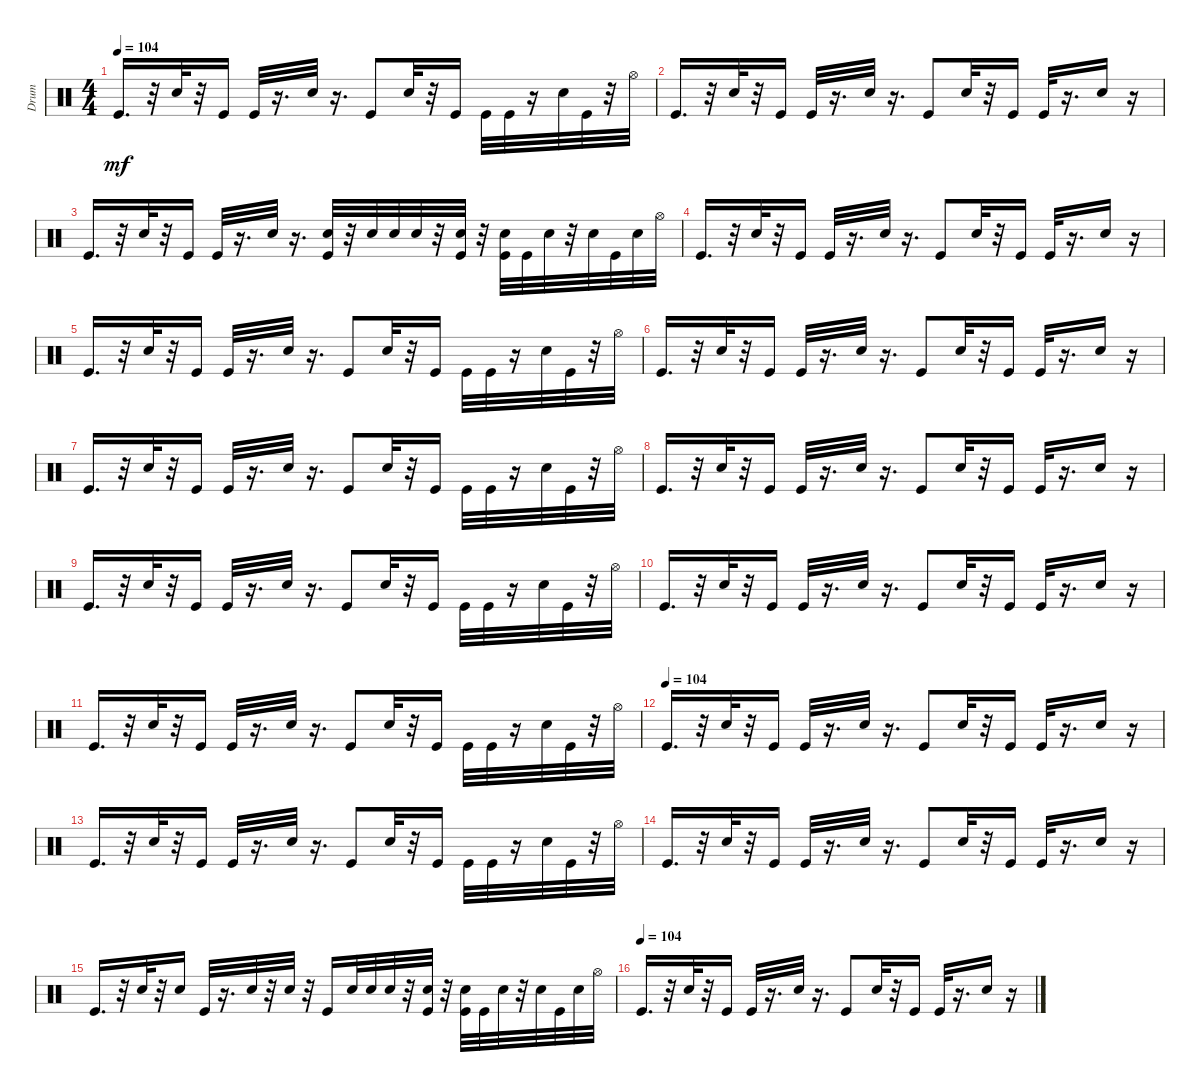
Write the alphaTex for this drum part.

\track ("Drum" "Drum") {instrument percussion}
\staff {score}
\articulation defaults
\ts (4 4)
\tempo 104
\clef neutral
\ks c "Kick (hit)".16{d dy mf}
r.32 "Snare (hit) 2".32 r.32 "Kick (hit)".16 "Kick (hit)".32 r.16{d} "Snare (hit) 2".32 r.16{d} "Kick (hit)".8 "Snare (hit) 2".32 r.32 "Kick (hit)".16 "Kick (hit)".32 "Kick (hit)".32 r.16 "Snare (hit) 2".32 "Kick (hit)".32 r.32 "Hi-Hat (open)".32 |
"Kick (hit)".16{d} r.32 "Snare (hit) 2".32 r.32 "Kick (hit)".16 "Kick (hit)".32 r.16{d} "Snare (hit) 2".32 r.16{d} "Kick (hit)".8 "Snare (hit) 2".32 r.32 "Kick (hit)".16 "Kick (hit)".32 r.16{d} "Snare (hit) 2".16 r.16 |
"Kick (hit)".16{d} r.32 "Snare (hit) 2".32 r.32 "Kick (hit)".16 "Kick (hit)".32 r.16{d} "Snare (hit) 2".32 r.16{d} ("Snare (hit) 2" "Kick (hit)").32 r.32 "Snare (hit) 2".32 "Snare (hit) 2".32 "Snare (hit) 2".32 r.32 ("Snare (hit) 2" "Kick (hit)").32 r.32 ("Snare (hit) 2" "Kick (hit)").32 "Kick (hit)".32 "Snare (hit) 2".32 r.32 "Snare (hit) 2".32 "Kick (hit)".32 "Snare (hit) 2".32 "Hi-Hat (open)".32 |
"Kick (hit)".16{d} r.32 "Snare (hit) 2".32 r.32 "Kick (hit)".16 "Kick (hit)".32 r.16{d} "Snare (hit) 2".32 r.16{d} "Kick (hit)".8 "Snare (hit) 2".32 r.32 "Kick (hit)".16 "Kick (hit)".32 r.16{d} "Snare (hit) 2".16 r.16 |
"Kick (hit)".16{d} r.32 "Snare (hit) 2".32 r.32 "Kick (hit)".16 "Kick (hit)".32 r.16{d} "Snare (hit) 2".32 r.16{d} "Kick (hit)".8 "Snare (hit) 2".32 r.32 "Kick (hit)".16 "Kick (hit)".32 "Kick (hit)".32 r.16 "Snare (hit) 2".32 "Kick (hit)".32 r.32 "Hi-Hat (open)".32 |
"Kick (hit)".16{d} r.32 "Snare (hit) 2".32 r.32 "Kick (hit)".16 "Kick (hit)".32 r.16{d} "Snare (hit) 2".32 r.16{d} "Kick (hit)".8 "Snare (hit) 2".32 r.32 "Kick (hit)".16 "Kick (hit)".32 r.16{d} "Snare (hit) 2".16 r.16 |
"Kick (hit)".16{d} r.32 "Snare (hit) 2".32 r.32 "Kick (hit)".16 "Kick (hit)".32 r.16{d} "Snare (hit) 2".32 r.16{d} "Kick (hit)".8 "Snare (hit) 2".32 r.32 "Kick (hit)".16 "Kick (hit)".32 "Kick (hit)".32 r.16 "Snare (hit) 2".32 "Kick (hit)".32 r.32 "Hi-Hat (open)".32 |
"Kick (hit)".16{d} r.32 "Snare (hit) 2".32 r.32 "Kick (hit)".16 "Kick (hit)".32 r.16{d} "Snare (hit) 2".32 r.16{d} "Kick (hit)".8 "Snare (hit) 2".32 r.32 "Kick (hit)".16 "Kick (hit)".32 r.16{d} "Snare (hit) 2".16 r.16 |
"Kick (hit)".16{d} r.32 "Snare (hit) 2".32 r.32 "Kick (hit)".16 "Kick (hit)".32 r.16{d} "Snare (hit) 2".32 r.16{d} "Kick (hit)".8 "Snare (hit) 2".32 r.32 "Kick (hit)".16 "Kick (hit)".32 "Kick (hit)".32 r.16 "Snare (hit) 2".32 "Kick (hit)".32 r.32 "Hi-Hat (open)".32 |
"Kick (hit)".16{d} r.32 "Snare (hit) 2".32 r.32 "Kick (hit)".16 "Kick (hit)".32 r.16{d} "Snare (hit) 2".32 r.16{d} "Kick (hit)".8 "Snare (hit) 2".32 r.32 "Kick (hit)".16 "Kick (hit)".32 r.16{d} "Snare (hit) 2".16 r.16 |
"Kick (hit)".16{d} r.32 "Snare (hit) 2".32 r.32 "Kick (hit)".16 "Kick (hit)".32 r.16{d} "Snare (hit) 2".32 r.16{d} "Kick (hit)".8 "Snare (hit) 2".32 r.32 "Kick (hit)".16 "Kick (hit)".32 "Kick (hit)".32 r.16 "Snare (hit) 2".32 "Kick (hit)".32 r.32 "Hi-Hat (open)".32 |
\tempo (104)
"Kick (hit)".16{d} r.32 "Snare (hit) 2".32 r.32 "Kick (hit)".16 "Kick (hit)".32 r.16{d} "Snare (hit) 2".32 r.16{d} "Kick (hit)".8 "Snare (hit) 2".32 r.32 "Kick (hit)".16 "Kick (hit)".32 r.16{d} "Snare (hit) 2".16 r.16 |
"Kick (hit)".16{d} r.32 "Snare (hit) 2".32 r.32 "Kick (hit)".16 "Kick (hit)".32 r.16{d} "Snare (hit) 2".32 r.16{d} "Kick (hit)".8 "Snare (hit) 2".32 r.32 "Kick (hit)".16 "Kick (hit)".32 "Kick (hit)".32 r.16 "Snare (hit) 2".32 "Kick (hit)".32 r.32 "Hi-Hat (open)".32 |
"Kick (hit)".16{d} r.32 "Snare (hit) 2".32 r.32 "Kick (hit)".16 "Kick (hit)".32 r.16{d} "Snare (hit) 2".32 r.16{d} "Kick (hit)".8 "Snare (hit) 2".32 r.32 "Kick (hit)".16 "Kick (hit)".32 r.16{d} "Snare (hit) 2".16 r.16 |
"Kick (hit)".16{d} r.32 "Snare (hit) 2".32 r.32 "Snare (hit) 2".16 "Kick (hit)".32 r.16{d} "Snare (hit) 2".32 r.32 "Snare (hit) 2".32 r.32 "Kick (hit)".16 "Snare (hit) 2".32 "Snare (hit) 2".32 "Snare (hit) 2".32 r.32 ("Snare (hit) 2" "Kick (hit)").32 r.32 ("Snare (hit) 2" "Kick (hit)").32 "Kick (hit)".32 "Snare (hit) 2".32 r.32 "Snare (hit) 2".32 "Kick (hit)".32 "Snare (hit) 2".32 "Hi-Hat (open)".32 |
\tempo (104)
"Kick (hit)".16{d} r.32 "Snare (hit) 2".32 r.32 "Kick (hit)".16 "Kick (hit)".32 r.16{d} "Snare (hit) 2".32 r.16{d} "Kick (hit)".8 "Snare (hit) 2".32 r.32 "Kick (hit)".16 "Kick (hit)".32 r.16{d} "Snare (hit) 2".16 r.16
